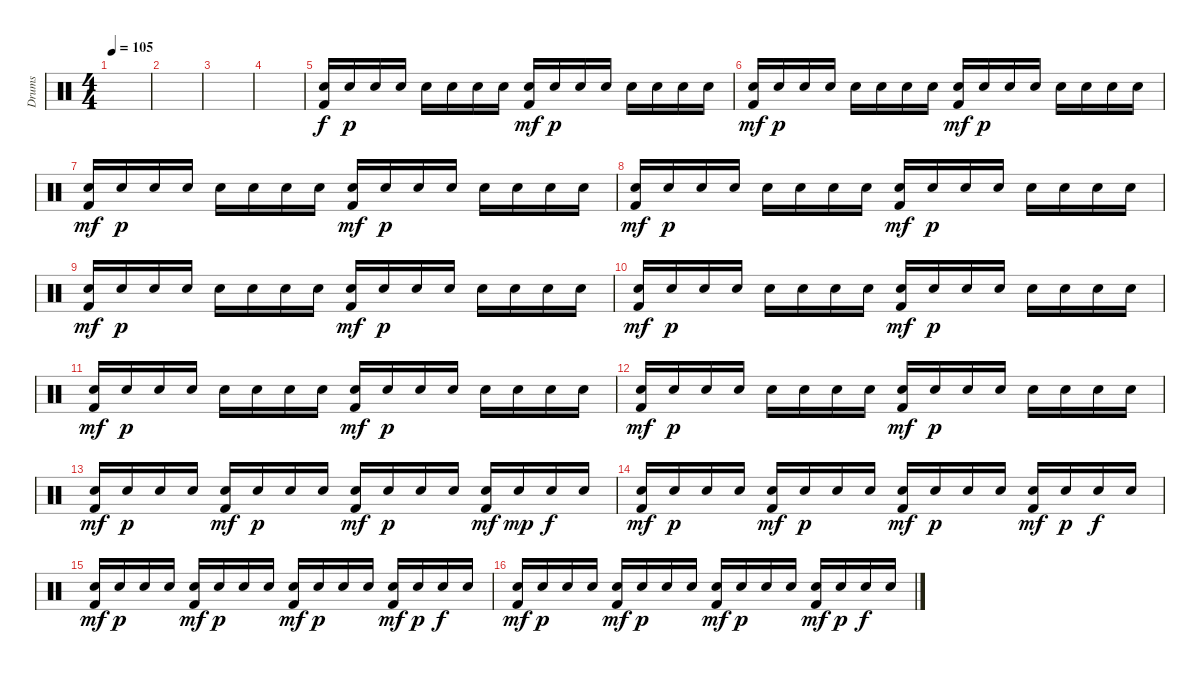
\track ("Drums" "Drums") {instrument percussion}
\staff {score}
\articulation defaults
\ts (4 4)
\tempo 105
\clef neutral
\ks c
|
|
|
|
("Snare (hit) 2" "Kick (hit) 2").16{volume 11} "Snare (hit) 2".16{dy p} "Snare (hit) 2".16 "Snare (hit) 2".16 "Snare (hit) 2".16 "Snare (hit) 2".16 "Snare (hit) 2".16 "Snare (hit) 2".16 ("Snare (hit) 2" "Kick (hit) 2").16{dy mf} "Snare (hit) 2".16{dy p} "Snare (hit) 2".16 "Snare (hit) 2".16 "Snare (hit) 2".16 "Snare (hit) 2".16 "Snare (hit) 2".16 "Snare (hit) 2".16 |
("Snare (hit) 2" "Kick (hit) 2").16{dy mf} "Snare (hit) 2".16{dy p} "Snare (hit) 2".16 "Snare (hit) 2".16 "Snare (hit) 2".16 "Snare (hit) 2".16 "Snare (hit) 2".16 "Snare (hit) 2".16 ("Snare (hit) 2" "Kick (hit) 2").16{dy mf} "Snare (hit) 2".16{dy p} "Snare (hit) 2".16 "Snare (hit) 2".16 "Snare (hit) 2".16 "Snare (hit) 2".16 "Snare (hit) 2".16 "Snare (hit) 2".16 |
("Snare (hit) 2" "Kick (hit) 2").16{dy mf} "Snare (hit) 2".16{dy p} "Snare (hit) 2".16 "Snare (hit) 2".16 "Snare (hit) 2".16 "Snare (hit) 2".16 "Snare (hit) 2".16 "Snare (hit) 2".16 ("Snare (hit) 2" "Kick (hit) 2").16{dy mf} "Snare (hit) 2".16{dy p} "Snare (hit) 2".16 "Snare (hit) 2".16 "Snare (hit) 2".16 "Snare (hit) 2".16 "Snare (hit) 2".16 "Snare (hit) 2".16 |
("Snare (hit) 2" "Kick (hit) 2").16{dy mf} "Snare (hit) 2".16{dy p} "Snare (hit) 2".16 "Snare (hit) 2".16 "Snare (hit) 2".16 "Snare (hit) 2".16 "Snare (hit) 2".16 "Snare (hit) 2".16 ("Snare (hit) 2" "Kick (hit) 2").16{dy mf} "Snare (hit) 2".16{dy p} "Snare (hit) 2".16 "Snare (hit) 2".16 "Snare (hit) 2".16 "Snare (hit) 2".16 "Snare (hit) 2".16 "Snare (hit) 2".16 |
("Snare (hit) 2" "Kick (hit) 2").16{dy mf} "Snare (hit) 2".16{dy p} "Snare (hit) 2".16 "Snare (hit) 2".16 "Snare (hit) 2".16 "Snare (hit) 2".16 "Snare (hit) 2".16 "Snare (hit) 2".16 ("Snare (hit) 2" "Kick (hit) 2").16{dy mf} "Snare (hit) 2".16{dy p} "Snare (hit) 2".16 "Snare (hit) 2".16 "Snare (hit) 2".16 "Snare (hit) 2".16 "Snare (hit) 2".16 "Snare (hit) 2".16 |
("Snare (hit) 2" "Kick (hit) 2").16{dy mf} "Snare (hit) 2".16{dy p} "Snare (hit) 2".16 "Snare (hit) 2".16 "Snare (hit) 2".16 "Snare (hit) 2".16 "Snare (hit) 2".16 "Snare (hit) 2".16 ("Snare (hit) 2" "Kick (hit) 2").16{dy mf} "Snare (hit) 2".16{dy p} "Snare (hit) 2".16 "Snare (hit) 2".16 "Snare (hit) 2".16 "Snare (hit) 2".16 "Snare (hit) 2".16 "Snare (hit) 2".16 |
("Snare (hit) 2" "Kick (hit) 2").16{dy mf} "Snare (hit) 2".16{dy p} "Snare (hit) 2".16 "Snare (hit) 2".16 "Snare (hit) 2".16 "Snare (hit) 2".16 "Snare (hit) 2".16 "Snare (hit) 2".16 ("Snare (hit) 2" "Kick (hit) 2").16{dy mf} "Snare (hit) 2".16{dy p} "Snare (hit) 2".16 "Snare (hit) 2".16 "Snare (hit) 2".16 "Snare (hit) 2".16 "Snare (hit) 2".16 "Snare (hit) 2".16 |
("Snare (hit) 2" "Kick (hit) 2").16{dy mf} "Snare (hit) 2".16{dy p} "Snare (hit) 2".16 "Snare (hit) 2".16 "Snare (hit) 2".16 "Snare (hit) 2".16 "Snare (hit) 2".16 "Snare (hit) 2".16 ("Snare (hit) 2" "Kick (hit) 2").16{dy mf} "Snare (hit) 2".16{dy p} "Snare (hit) 2".16 "Snare (hit) 2".16 "Snare (hit) 2".16 "Snare (hit) 2".16 "Snare (hit) 2".16 "Snare (hit) 2".16 |
("Snare (hit) 2" "Kick (hit) 2").16{dy mf volume 15} "Snare (hit) 2".16{dy p} "Snare (hit) 2".16 "Snare (hit) 2".16 ("Snare (hit) 2" "Kick (hit) 2").16{dy mf} "Snare (hit) 2".16{dy p} "Snare (hit) 2".16 "Snare (hit) 2".16 ("Snare (hit) 2" "Kick (hit) 2").16{dy mf} "Snare (hit) 2".16{dy p} "Snare (hit) 2".16 "Snare (hit) 2".16 ("Snare (hit) 2" "Kick (hit) 2").16{dy mf} "Snare (hit) 2".16{dy mp} "Snare (hit) 2".16{dy f} "Snare (hit) 2".16 |
("Snare (hit) 2" "Kick (hit) 2").16{dy mf} "Snare (hit) 2".16{dy p} "Snare (hit) 2".16 "Snare (hit) 2".16 ("Snare (hit) 2" "Kick (hit) 2").16{dy mf} "Snare (hit) 2".16{dy p} "Snare (hit) 2".16 "Snare (hit) 2".16 ("Snare (hit) 2" "Kick (hit) 2").16{dy mf} "Snare (hit) 2".16{dy p} "Snare (hit) 2".16 "Snare (hit) 2".16 ("Snare (hit) 2" "Kick (hit) 2").16{dy mf} "Snare (hit) 2".16{dy p} "Snare (hit) 2".16{dy f} "Snare (hit) 2".16 |
("Snare (hit) 2" "Kick (hit) 2").16{dy mf} "Snare (hit) 2".16{dy p} "Snare (hit) 2".16 "Snare (hit) 2".16 ("Snare (hit) 2" "Kick (hit) 2").16{dy mf} "Snare (hit) 2".16{dy p} "Snare (hit) 2".16 "Snare (hit) 2".16 ("Snare (hit) 2" "Kick (hit) 2").16{dy mf} "Snare (hit) 2".16{dy p} "Snare (hit) 2".16 "Snare (hit) 2".16 ("Snare (hit) 2" "Kick (hit) 2").16{dy mf} "Snare (hit) 2".16{dy p} "Snare (hit) 2".16{dy f} "Snare (hit) 2".16 |
("Snare (hit) 2" "Kick (hit) 2").16{dy mf} "Snare (hit) 2".16{dy p} "Snare (hit) 2".16 "Snare (hit) 2".16 ("Snare (hit) 2" "Kick (hit) 2").16{dy mf} "Snare (hit) 2".16{dy p} "Snare (hit) 2".16 "Snare (hit) 2".16 ("Snare (hit) 2" "Kick (hit) 2").16{dy mf} "Snare (hit) 2".16{dy p} "Snare (hit) 2".16 "Snare (hit) 2".16 ("Snare (hit) 2" "Kick (hit) 2").16{dy mf} "Snare (hit) 2".16{dy p} "Snare (hit) 2".16{dy f} "Snare (hit) 2".16
